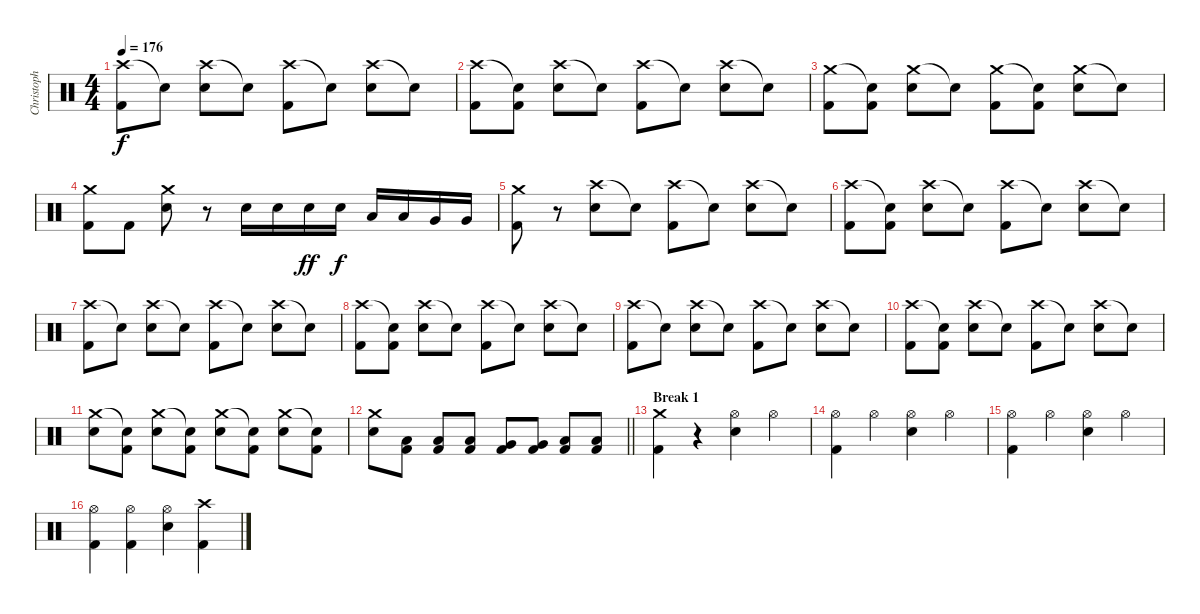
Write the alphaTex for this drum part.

\track ("Christoph" "Christoph") {instrument percussion}
\staff {score}
\articulation defaults
\ts (4 4)
\tempo 176
\clef neutral
\ks c
("Crash high (hit)" "Kick (hit) 2").8{dy f} "Snare (hit)"{t}.8 ("Crash high (hit)" "Snare (hit) 2").8 "Snare (hit)"{t}.8 ("Crash high (hit)" "Kick (hit) 2").8 "Snare (hit)"{t}.8 ("Crash high (hit)" "Snare (hit) 2").8 "Snare (hit)"{t}.8 |
("Crash high (hit)" "Kick (hit) 2").8 ("Snare (hit)"{t} "Kick (hit) 2").8 ("Crash high (hit)" "Snare (hit) 2").8 "Snare (hit)"{t}.8 ("Crash high (hit)" "Kick (hit) 2").8 "Snare (hit)"{t}.8 ("Crash high (hit)" "Snare (hit) 2").8 "Snare (hit)"{t}.8 |
("Crash medium (hit)" "Kick (hit) 2").8 ("Snare (hit)"{t} "Kick (hit) 2").8 ("Crash medium (hit)" "Snare (hit) 2").8 "Snare (hit)"{t}.8 ("Crash medium (hit)" "Kick (hit) 2").8 ("Snare (hit)"{t} "Kick (hit) 2").8 ("Crash medium (hit)" "Snare (hit) 2").8 "Snare (hit)"{t}.8 |
("Crash medium (hit)" "Kick (hit) 2").8 "Kick (hit) 2".8 ("Crash medium (hit)" "Snare (hit) 2").8 r.8 "Snare (hit) 2".16 "Snare (hit) 2".16 "Snare (hit) 2".16{dy ff} "Snare (hit) 2".16{dy f} "Low Tom (hit)".16 "Low Tom (hit)".16 "Very Low Tom (hit)".16 "Very Low Tom (hit)".16 |
("Crash medium (hit)" "Kick (hit) 2").8 r.8 ("Crash high (hit)" "Snare (hit) 2").8 "Snare (hit)"{t}.8 ("Crash high (hit)" "Kick (hit) 2").8 "Snare (hit)"{t}.8 ("Crash high (hit)" "Snare (hit) 2").8 "Snare (hit)"{t}.8 |
("Crash high (hit)" "Kick (hit) 2").8 ("Snare (hit)"{t} "Kick (hit) 2").8 ("Crash high (hit)" "Snare (hit) 2").8 "Snare (hit)"{t}.8 ("Crash high (hit)" "Kick (hit) 2").8 "Snare (hit)"{t}.8 ("Crash high (hit)" "Snare (hit) 2").8 "Snare (hit)"{t}.8 |
("Crash high (hit)" "Kick (hit) 2").8 "Snare (hit)"{t}.8 ("Crash high (hit)" "Snare (hit) 2").8 "Snare (hit)"{t}.8 ("Crash high (hit)" "Kick (hit) 2").8 "Snare (hit)"{t}.8 ("Crash high (hit)" "Snare (hit) 2").8 "Snare (hit)"{t}.8 |
("Crash high (hit)" "Kick (hit) 2").8 ("Snare (hit)"{t} "Kick (hit) 2").8 ("Crash high (hit)" "Snare (hit) 2").8 "Snare (hit)"{t}.8 ("Crash high (hit)" "Kick (hit) 2").8 "Snare (hit)"{t}.8 ("Crash high (hit)" "Snare (hit) 2").8 "Snare (hit)"{t}.8 |
("Crash high (hit)" "Kick (hit) 2").8 "Snare (hit)"{t}.8 ("Crash high (hit)" "Snare (hit) 2").8 "Snare (hit)"{t}.8 ("Crash high (hit)" "Kick (hit) 2").8 "Snare (hit)"{t}.8 ("Crash high (hit)" "Snare (hit) 2").8 "Snare (hit)"{t}.8 |
("Crash high (hit)" "Kick (hit) 2").8 ("Snare (hit)"{t} "Kick (hit) 2").8 ("Crash high (hit)" "Snare (hit) 2").8 "Snare (hit)"{t}.8 ("Crash high (hit)" "Kick (hit) 2").8 "Snare (hit)"{t}.8 ("Crash high (hit)" "Snare (hit) 2").8 "Snare (hit)"{t}.8 |
("Crash medium (hit)" "Snare (hit) 2").8 ("Snare (hit)"{t} "Kick (hit) 2").8 ("Crash medium (hit)" "Snare (hit) 2").8 ("Snare (hit)"{t} "Kick (hit) 2").8 ("Crash medium (hit)" "Snare (hit) 2").8 ("Snare (hit)"{t} "Kick (hit) 2").8 ("Crash medium (hit)" "Snare (hit) 2").8 ("Snare (hit)"{t} "Kick (hit) 2").8 |
\barLineRight lightlight
("Crash medium (hit)" "Snare (hit) 2").8 ("Low Tom (hit)" "Kick (hit) 2").8 ("Low Tom (hit)" "Kick (hit) 2").8 ("Low Tom (hit)" "Kick (hit) 2").8 ("Very Low Tom (hit)" "Kick (hit) 2").8 ("Very Low Tom (hit)" "Kick (hit) 2").8 ("Low Floor Tom (hit)" "Kick (hit) 2").8 ("Low Floor Tom (hit)" "Kick (hit) 2").8 |
\section ("" "Break 1")
("Crash medium (hit)" "Kick (hit) 2").4 r.4 ("Hi-Hat (open)" "Snare (hit) 2").4 "Hi-Hat (open)".4 |
("Hi-Hat (open)" "Kick (hit) 2").4 "Hi-Hat (open)".4 ("Hi-Hat (open)" "Snare (hit) 2").4 "Hi-Hat (open)".4 |
("Hi-Hat (open)" "Kick (hit) 2").4 "Hi-Hat (open)".4 ("Hi-Hat (open)" "Snare (hit) 2").4 "Hi-Hat (open)".4 |
("Hi-Hat (open)" "Kick (hit) 2").4 ("Hi-Hat (open)" "Kick (hit) 2").4 ("Hi-Hat (open)" "Snare (hit) 2").4 ("Crash high (hit)" "Kick (hit) 2").4
